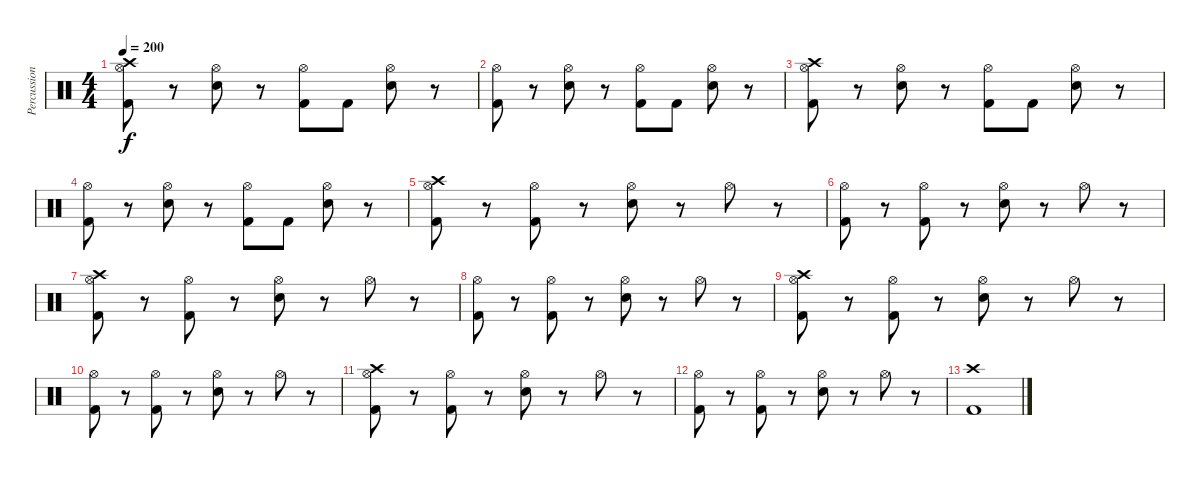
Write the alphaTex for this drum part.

\track ("Percussioni" "Percussion") {instrument percussion}
\staff {score}
\articulation defaults
\ts (4 4)
\tempo 200
\clef neutral
\ks c
("Crash high (hit)" "Kick (hit) 2" "Hi-Hat (open)").8{dy f} r.8 ("Snare (hit) 2" "Hi-Hat (open)").8 r.8 ("Kick (hit) 2" "Hi-Hat (open)").8 "Kick (hit) 2".8 ("Snare (hit) 2" "Hi-Hat (open)").8 r.8 |
("Kick (hit) 2" "Hi-Hat (open)").8 r.8 ("Snare (hit) 2" "Hi-Hat (open)").8 r.8 ("Kick (hit) 2" "Hi-Hat (open)").8 "Kick (hit) 2".8 ("Snare (hit) 2" "Hi-Hat (open)").8 r.8 |
("Crash high (hit)" "Kick (hit) 2" "Hi-Hat (open)").8 r.8 ("Snare (hit) 2" "Hi-Hat (open)").8 r.8 ("Kick (hit) 2" "Hi-Hat (open)").8 "Kick (hit) 2".8 ("Snare (hit) 2" "Hi-Hat (open)").8 r.8 |
("Kick (hit) 2" "Hi-Hat (open)").8 r.8 ("Snare (hit) 2" "Hi-Hat (open)").8 r.8 ("Kick (hit) 2" "Hi-Hat (open)").8 "Kick (hit) 2".8 ("Snare (hit) 2" "Hi-Hat (open)").8 r.8 |
("Crash high (hit)" "Kick (hit) 2" "Hi-Hat (open)").8 r.8 ("Kick (hit) 2" "Hi-Hat (open)").8 r.8 ("Snare (hit) 2" "Hi-Hat (open)").8 r.8 "Hi-Hat (open)".8 r.8 |
("Kick (hit) 2" "Hi-Hat (open)").8 r.8 ("Kick (hit) 2" "Hi-Hat (open)").8 r.8 ("Snare (hit) 2" "Hi-Hat (open)").8 r.8 "Hi-Hat (open)".8 r.8 |
("Crash high (hit)" "Kick (hit) 2" "Hi-Hat (open)").8 r.8 ("Kick (hit) 2" "Hi-Hat (open)").8 r.8 ("Snare (hit) 2" "Hi-Hat (open)").8 r.8 "Hi-Hat (open)".8 r.8 |
("Kick (hit) 2" "Hi-Hat (open)").8 r.8 ("Kick (hit) 2" "Hi-Hat (open)").8 r.8 ("Snare (hit) 2" "Hi-Hat (open)").8 r.8 "Hi-Hat (open)".8 r.8 |
("Crash high (hit)" "Kick (hit) 2" "Hi-Hat (open)").8 r.8 ("Kick (hit) 2" "Hi-Hat (open)").8 r.8 ("Snare (hit) 2" "Hi-Hat (open)").8 r.8 "Hi-Hat (open)".8 r.8 |
("Kick (hit) 2" "Hi-Hat (open)").8 r.8 ("Kick (hit) 2" "Hi-Hat (open)").8 r.8 ("Snare (hit) 2" "Hi-Hat (open)").8 r.8 "Hi-Hat (open)".8 r.8 |
("Crash high (hit)" "Kick (hit) 2" "Hi-Hat (open)").8 r.8 ("Kick (hit) 2" "Hi-Hat (open)").8 r.8 ("Snare (hit) 2" "Hi-Hat (open)").8 r.8 "Hi-Hat (open)".8 r.8 |
("Kick (hit) 2" "Hi-Hat (open)").8 r.8 ("Kick (hit) 2" "Hi-Hat (open)").8 r.8 ("Snare (hit) 2" "Hi-Hat (open)").8 r.8 "Hi-Hat (open)".8 r.8 |
("Crash high (hit)" "Kick (hit) 2").1
